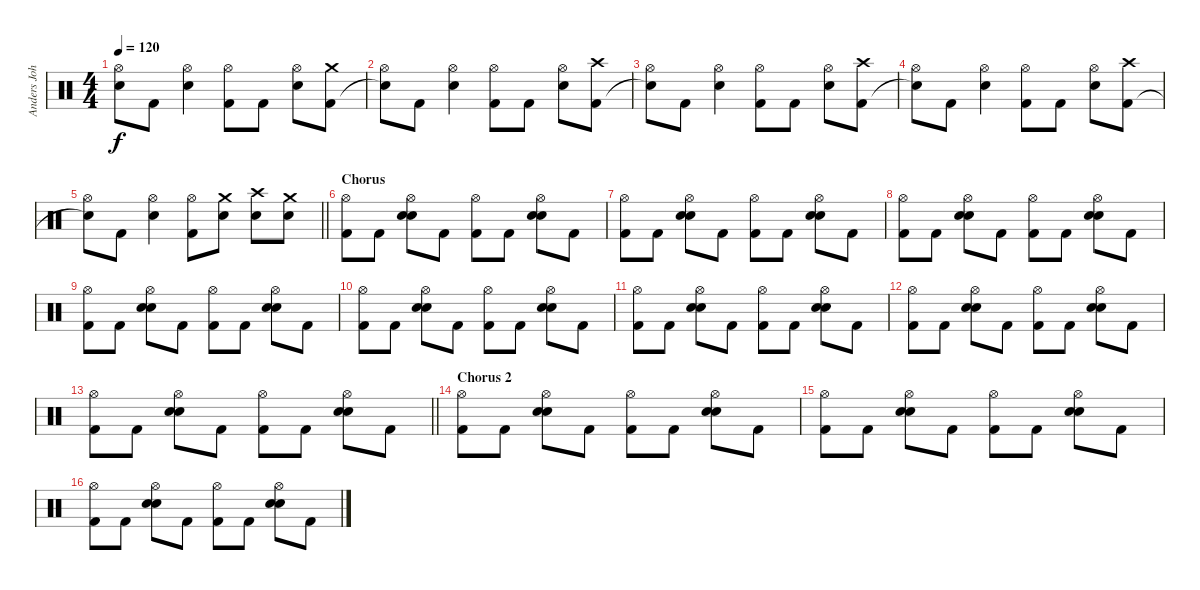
\track ("Anders Johansson" "Anders Joh") {instrument percussion}
\staff {score}
\articulation defaults
\ts (4 4)
\tempo 120
\clef neutral
\ks c
("Hi-Hat (open)" "Snare (hit)"{t}).8{dy f} "Kick (hit) 2".8 ("Hi-Hat (open)" "Electric Snare (hit)").4 ("Hi-Hat (open)" "Kick (hit) 2").8 "Kick (hit) 2".8 ("Hi-Hat (open)" "Electric Snare (hit)").8 ("Crash medium (hit)" "Kick (hit) 2").8 |
("Hi-Hat (open)" "Snare (hit)"{t}).8 "Kick (hit) 2".8 ("Hi-Hat (open)" "Electric Snare (hit)").4 ("Hi-Hat (open)" "Kick (hit) 2").8 "Kick (hit) 2".8 ("Hi-Hat (open)" "Electric Snare (hit)").8 ("Crash high (hit)" "Kick (hit) 2").8 |
("Hi-Hat (open)" "Snare (hit)"{t}).8 "Kick (hit) 2".8 ("Hi-Hat (open)" "Electric Snare (hit)").4 ("Hi-Hat (open)" "Kick (hit) 2").8 "Kick (hit) 2".8 ("Hi-Hat (open)" "Electric Snare (hit)").8 ("Crash high (hit)" "Kick (hit) 2").8 |
("Hi-Hat (open)" "Snare (hit)"{t}).8 "Kick (hit) 2".8 ("Hi-Hat (open)" "Electric Snare (hit)").4 ("Hi-Hat (open)" "Kick (hit) 2").8 "Kick (hit) 2".8 ("Hi-Hat (open)" "Electric Snare (hit)").8 ("Crash high (hit)" "Kick (hit) 2").8 |
\barLineRight lightlight
("Hi-Hat (open)" "Snare (hit)"{t}).8 "Kick (hit) 2".8 ("Hi-Hat (open)" "Electric Snare (hit)").4 ("Hi-Hat (open)" "Kick (hit) 2").8 ("Crash medium (hit)" "Electric Snare (hit)").8 ("Crash high (hit)" "Electric Snare (hit)").8 ("Crash medium (hit)" "Electric Snare (hit)").8 |
\section ("" "Chorus")
("Hi-Hat (open)" "Kick (hit) 2").8 "Kick (hit) 2".8 ("Hi-Hat (open)" "Electric Snare (hit)" "Snare (hit) 2").8 "Kick (hit) 2".8 ("Hi-Hat (open)" "Kick (hit) 2").8 "Kick (hit) 2".8 ("Hi-Hat (open)" "Electric Snare (hit)" "Snare (hit) 2").8 "Kick (hit) 2".8 |
("Hi-Hat (open)" "Kick (hit) 2").8 "Kick (hit) 2".8 ("Hi-Hat (open)" "Electric Snare (hit)" "Snare (hit) 2").8 "Kick (hit) 2".8 ("Hi-Hat (open)" "Kick (hit) 2").8 "Kick (hit) 2".8 ("Hi-Hat (open)" "Electric Snare (hit)" "Snare (hit) 2").8 "Kick (hit) 2".8 |
("Hi-Hat (open)" "Kick (hit) 2").8 "Kick (hit) 2".8 ("Hi-Hat (open)" "Electric Snare (hit)" "Snare (hit) 2").8 "Kick (hit) 2".8 ("Hi-Hat (open)" "Kick (hit) 2").8 "Kick (hit) 2".8 ("Hi-Hat (open)" "Electric Snare (hit)" "Snare (hit) 2").8 "Kick (hit) 2".8 |
("Hi-Hat (open)" "Kick (hit) 2").8 "Kick (hit) 2".8 ("Hi-Hat (open)" "Electric Snare (hit)" "Snare (hit) 2").8 "Kick (hit) 2".8 ("Hi-Hat (open)" "Kick (hit) 2").8 "Kick (hit) 2".8 ("Hi-Hat (open)" "Electric Snare (hit)" "Snare (hit) 2").8 "Kick (hit) 2".8 |
("Hi-Hat (open)" "Kick (hit) 2").8 "Kick (hit) 2".8 ("Hi-Hat (open)" "Electric Snare (hit)" "Snare (hit) 2").8 "Kick (hit) 2".8 ("Hi-Hat (open)" "Kick (hit) 2").8 "Kick (hit) 2".8 ("Hi-Hat (open)" "Electric Snare (hit)" "Snare (hit) 2").8 "Kick (hit) 2".8 |
("Hi-Hat (open)" "Kick (hit) 2").8 "Kick (hit) 2".8 ("Hi-Hat (open)" "Electric Snare (hit)" "Snare (hit) 2").8 "Kick (hit) 2".8 ("Hi-Hat (open)" "Kick (hit) 2").8 "Kick (hit) 2".8 ("Hi-Hat (open)" "Electric Snare (hit)" "Snare (hit) 2").8 "Kick (hit) 2".8 |
("Hi-Hat (open)" "Kick (hit) 2").8 "Kick (hit) 2".8 ("Hi-Hat (open)" "Electric Snare (hit)" "Snare (hit) 2").8 "Kick (hit) 2".8 ("Hi-Hat (open)" "Kick (hit) 2").8 "Kick (hit) 2".8 ("Hi-Hat (open)" "Electric Snare (hit)" "Snare (hit) 2").8 "Kick (hit) 2".8 |
\barLineRight lightlight
("Hi-Hat (open)" "Kick (hit) 2").8 "Kick (hit) 2".8 ("Hi-Hat (open)" "Electric Snare (hit)" "Snare (hit) 2").8 "Kick (hit) 2".8 ("Hi-Hat (open)" "Kick (hit) 2").8 "Kick (hit) 2".8 ("Hi-Hat (open)" "Electric Snare (hit)" "Snare (hit) 2").8 "Kick (hit) 2".8 |
\section ("" "Chorus 2")
("Hi-Hat (open)" "Kick (hit) 2").8 "Kick (hit) 2".8 ("Hi-Hat (open)" "Electric Snare (hit)" "Snare (hit) 2").8 "Kick (hit) 2".8 ("Hi-Hat (open)" "Kick (hit) 2").8 "Kick (hit) 2".8 ("Hi-Hat (open)" "Electric Snare (hit)" "Snare (hit) 2").8 "Kick (hit) 2".8 |
("Hi-Hat (open)" "Kick (hit) 2").8 "Kick (hit) 2".8 ("Hi-Hat (open)" "Electric Snare (hit)" "Snare (hit) 2").8 "Kick (hit) 2".8 ("Hi-Hat (open)" "Kick (hit) 2").8 "Kick (hit) 2".8 ("Hi-Hat (open)" "Electric Snare (hit)" "Snare (hit) 2").8 "Kick (hit) 2".8 |
("Hi-Hat (open)" "Kick (hit) 2").8 "Kick (hit) 2".8 ("Hi-Hat (open)" "Electric Snare (hit)" "Snare (hit) 2").8 "Kick (hit) 2".8 ("Hi-Hat (open)" "Kick (hit) 2").8 "Kick (hit) 2".8 ("Hi-Hat (open)" "Electric Snare (hit)" "Snare (hit) 2").8 "Kick (hit) 2".8
